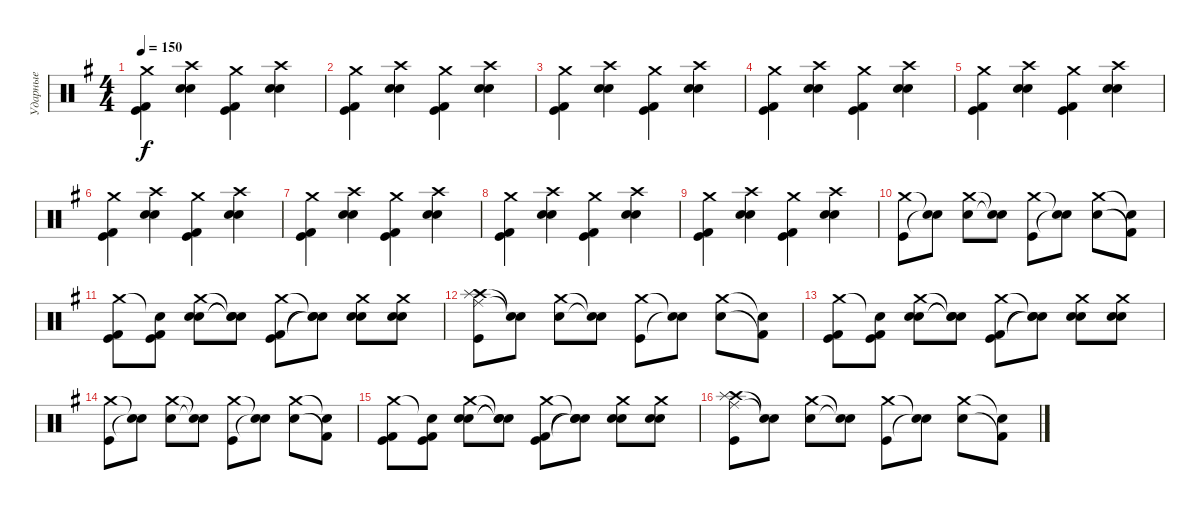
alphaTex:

\track ("Ударные" "Ударные") {instrument percussion}
\staff {score}
\articulation defaults
\ts (4 4)
\tempo 150
\clef neutral
\ks g
("Crash medium (hit)" "Kick (hit) 2" "Kick (hit)").4{dy f} ("Crash high (hit)" "Snare (hit) 2" "Snare (hit) 2").4 ("Crash medium (hit)" "Kick (hit) 2" "Kick (hit)").4 ("Crash high (hit)" "Snare (hit) 2" "Snare (hit) 2").4 |
("Crash medium (hit)" "Kick (hit) 2" "Kick (hit)").4 ("Crash high (hit)" "Snare (hit) 2" "Snare (hit) 2").4 ("Crash medium (hit)" "Kick (hit) 2" "Kick (hit)").4 ("Crash high (hit)" "Snare (hit) 2" "Snare (hit) 2").4 |
("Crash medium (hit)" "Kick (hit) 2" "Kick (hit)").4 ("Crash high (hit)" "Snare (hit) 2" "Snare (hit) 2").4 ("Crash medium (hit)" "Kick (hit) 2" "Kick (hit)").4 ("Crash high (hit)" "Snare (hit) 2" "Snare (hit) 2").4 |
("Crash medium (hit)" "Kick (hit) 2" "Kick (hit)").4 ("Crash high (hit)" "Snare (hit) 2" "Snare (hit) 2").4 ("Crash medium (hit)" "Kick (hit) 2" "Kick (hit)").4 ("Crash high (hit)" "Snare (hit) 2" "Snare (hit) 2").4 |
("Crash medium (hit)" "Kick (hit) 2" "Kick (hit)").4 ("Crash high (hit)" "Snare (hit) 2" "Snare (hit) 2").4 ("Crash medium (hit)" "Kick (hit) 2" "Kick (hit)").4 ("Crash high (hit)" "Snare (hit) 2" "Snare (hit) 2").4 |
("Crash medium (hit)" "Kick (hit) 2" "Kick (hit)").4 ("Crash high (hit)" "Snare (hit) 2" "Snare (hit) 2").4 ("Crash medium (hit)" "Kick (hit) 2" "Kick (hit)").4 ("Crash high (hit)" "Snare (hit) 2" "Snare (hit) 2").4 |
("Crash medium (hit)" "Kick (hit) 2" "Kick (hit)").4 ("Crash high (hit)" "Snare (hit) 2" "Snare (hit) 2").4 ("Crash medium (hit)" "Kick (hit) 2" "Kick (hit)").4 ("Crash high (hit)" "Snare (hit) 2" "Snare (hit) 2").4 |
("Crash medium (hit)" "Kick (hit) 2" "Kick (hit)").4 ("Crash high (hit)" "Snare (hit) 2" "Snare (hit) 2").4 ("Crash medium (hit)" "Kick (hit) 2" "Kick (hit)").4 ("Crash high (hit)" "Snare (hit) 2" "Snare (hit) 2").4 |
("Crash medium (hit)" "Kick (hit) 2" "Kick (hit)").4 ("Crash high (hit)" "Snare (hit) 2" "Snare (hit) 2").4 ("Crash medium (hit)" "Kick (hit) 2" "Kick (hit)").4 ("Crash high (hit)" "Snare (hit) 2" "Snare (hit) 2").4 |
("Crash medium (hit)" "Kick (hit)").8 ("Snare (hit)"{t} "Snare (hit)"{t}).8 ("Crash medium (hit)" "Snare (hit) 2").8 ("Snare (hit)"{t} "Snare (hit)"{t}).8 ("Crash medium (hit)" "Kick (hit)").8 ("Snare (hit)"{t} "Snare (hit)"{t}).8 ("Crash medium (hit)" "Snare (hit) 2").8 ("Snare (hit)"{t} "Kick (hit) 2"{t}).8 |
("Crash medium (hit)" "Kick (hit) 2" "Kick (hit)").8 ("Snare (hit)"{t} "Kick (hit) 2" "Kick (hit)").8 ("Crash medium (hit)" "Snare (hit) 2" "Electric Snare (hit)").8 ("Snare (hit)"{t} "Snare (hit) 2"{t} "Snare (hit)"{t}).8 ("Crash medium (hit)" "Kick (hit) 2" "Kick (hit)").8 ("Snare (hit)"{t} "Snare (hit)"{t} "Snare (hit)"{t}).8 ("Crash medium (hit)" "Snare (hit) 2" "Electric Snare (hit)").8 ("Crash medium (hit)" "Snare (hit) 2" "Electric Snare (hit)").8 |
("Ride (middle)" "Crash high (hit)" "Splash (hit)" "Kick (hit)").8 ("Snare (hit)"{t} "Snare (hit)"{t}).8 ("Crash medium (hit)" "Snare (hit) 2").8 ("Snare (hit)"{t} "Snare (hit)"{t}).8 ("Crash medium (hit)" "Kick (hit)").8 ("Snare (hit)"{t} "Snare (hit)"{t}).8 ("Crash medium (hit)" "Snare (hit) 2").8 ("Snare (hit)"{t} "Kick (hit) 2"{t}).8 |
("Crash medium (hit)" "Kick (hit) 2" "Kick (hit)").8 ("Snare (hit)"{t} "Kick (hit) 2" "Kick (hit)").8 ("Crash medium (hit)" "Snare (hit) 2" "Electric Snare (hit)").8 ("Snare (hit)"{t} "Snare (hit) 2"{t} "Snare (hit)"{t}).8 ("Crash medium (hit)" "Kick (hit) 2" "Kick (hit)").8 ("Snare (hit)"{t} "Snare (hit)"{t} "Snare (hit)"{t}).8 ("Crash medium (hit)" "Snare (hit) 2" "Electric Snare (hit)").8 ("Crash medium (hit)" "Snare (hit) 2" "Electric Snare (hit)").8 |
("Crash medium (hit)" "Kick (hit)").8 ("Snare (hit)"{t} "Snare (hit)"{t}).8 ("Crash medium (hit)" "Snare (hit) 2").8 ("Snare (hit)"{t} "Snare (hit)"{t}).8 ("Crash medium (hit)" "Kick (hit)").8 ("Snare (hit)"{t} "Snare (hit)"{t}).8 ("Crash medium (hit)" "Snare (hit) 2").8 ("Snare (hit)"{t} "Kick (hit) 2"{t}).8 |
("Crash medium (hit)" "Kick (hit) 2" "Kick (hit)").8 ("Snare (hit)"{t} "Kick (hit) 2" "Kick (hit)").8 ("Crash medium (hit)" "Snare (hit) 2" "Electric Snare (hit)").8 ("Snare (hit)"{t} "Snare (hit) 2"{t} "Snare (hit)"{t}).8 ("Crash medium (hit)" "Kick (hit) 2" "Kick (hit)").8 ("Snare (hit)"{t} "Snare (hit)"{t} "Snare (hit)"{t}).8 ("Crash medium (hit)" "Snare (hit) 2" "Electric Snare (hit)").8 ("Crash medium (hit)" "Snare (hit) 2" "Electric Snare (hit)").8 |
("Ride (middle)" "Crash high (hit)" "Splash (hit)" "Kick (hit)").8 ("Snare (hit)"{t} "Snare (hit)"{t}).8 ("Crash medium (hit)" "Snare (hit) 2").8 ("Snare (hit)"{t} "Snare (hit)"{t}).8 ("Crash medium (hit)" "Kick (hit)").8 ("Snare (hit)"{t} "Snare (hit)"{t}).8 ("Crash medium (hit)" "Snare (hit) 2").8 ("Snare (hit)"{t} "Kick (hit) 2"{t}).8
